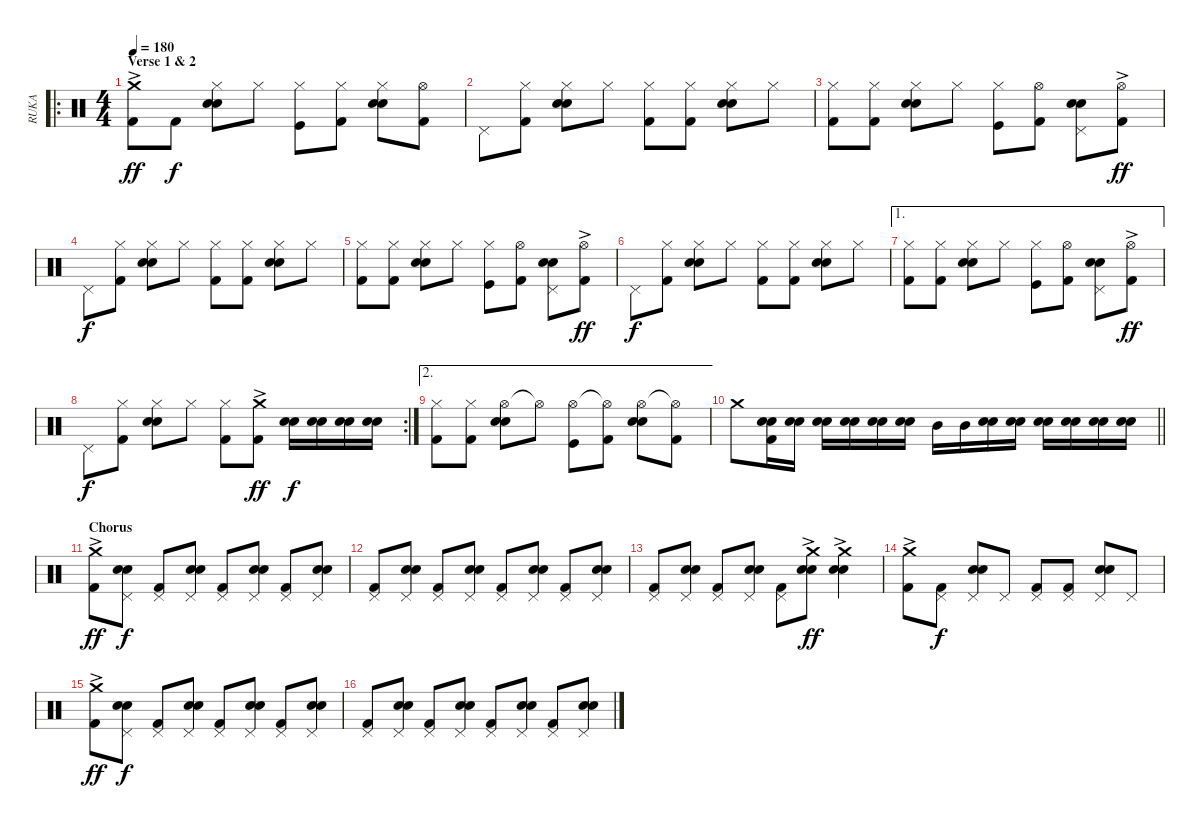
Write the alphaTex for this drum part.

\track ("RUKA" "RUKA") {instrument percussion}
\staff {score}
\articulation defaults
\ro
\ts (4 4)
\section ("" "Verse 1 & 2")
\tempo 180
\clef neutral
\ks c
("Crash medium (hit)"{ac} "Kick (hit) 2").8{dy ff} "Kick (hit) 2".8{dy f} ("Hi-Hat (closed)" "Snare (hit) 2" "Electric Snare (hit)").8 "Hi-Hat (closed)".8 ("Hi-Hat (closed)" "Kick (hit)").8 ("Hi-Hat (closed)" "Kick (hit) 2").8 ("Hi-Hat (closed)" "Snare (hit) 2" "Electric Snare (hit)").8 ("Hi-Hat (open)" "Kick (hit) 2").8 |
"Pedal Hi-Hat (hit)".8 ("Hi-Hat (closed)" "Kick (hit) 2").8 ("Hi-Hat (closed)" "Snare (hit) 2" "Electric Snare (hit)").8 "Hi-Hat (closed)".8 ("Hi-Hat (closed)" "Kick (hit) 2").8 ("Hi-Hat (closed)" "Kick (hit) 2").8 ("Hi-Hat (closed)" "Snare (hit) 2" "Electric Snare (hit)").8 "Hi-Hat (closed)".8 |
("Hi-Hat (closed)" "Kick (hit) 2").8 ("Hi-Hat (closed)" "Kick (hit) 2").8 ("Hi-Hat (closed)" "Snare (hit) 2" "Electric Snare (hit)").8 "Hi-Hat (closed)".8 ("Hi-Hat (closed)" "Kick (hit)").8 ("Hi-Hat (open)" "Kick (hit) 2").8 ("Pedal Hi-Hat (hit)" "Snare (hit) 2" "Electric Snare (hit)").8 ("Hi-Hat (open)"{ac} "Kick (hit) 2").8{dy ff} |
"Pedal Hi-Hat (hit)".8{dy f} ("Hi-Hat (closed)" "Kick (hit) 2").8 ("Hi-Hat (closed)" "Snare (hit) 2" "Electric Snare (hit)").8 "Hi-Hat (closed)".8 ("Hi-Hat (closed)" "Kick (hit) 2").8 ("Hi-Hat (closed)" "Kick (hit) 2").8 ("Hi-Hat (closed)" "Snare (hit) 2" "Electric Snare (hit)").8 "Hi-Hat (closed)".8 |
("Hi-Hat (closed)" "Kick (hit) 2").8 ("Hi-Hat (closed)" "Kick (hit) 2").8 ("Hi-Hat (closed)" "Snare (hit) 2" "Electric Snare (hit)").8 "Hi-Hat (closed)".8 ("Hi-Hat (closed)" "Kick (hit)").8 ("Hi-Hat (open)" "Kick (hit) 2").8 ("Pedal Hi-Hat (hit)" "Snare (hit) 2" "Electric Snare (hit)").8 ("Hi-Hat (open)"{ac} "Kick (hit) 2").8{dy ff} |
"Pedal Hi-Hat (hit)".8{dy f} ("Hi-Hat (closed)" "Kick (hit) 2").8 ("Hi-Hat (closed)" "Snare (hit) 2" "Electric Snare (hit)").8 "Hi-Hat (closed)".8 ("Hi-Hat (closed)" "Kick (hit) 2").8 ("Hi-Hat (closed)" "Kick (hit) 2").8 ("Hi-Hat (closed)" "Snare (hit) 2" "Electric Snare (hit)").8 "Hi-Hat (closed)".8 |
\ae 1
("Hi-Hat (closed)" "Kick (hit) 2").8 ("Hi-Hat (closed)" "Kick (hit) 2").8 ("Hi-Hat (closed)" "Snare (hit) 2" "Electric Snare (hit)").8 "Hi-Hat (closed)".8 ("Hi-Hat (closed)" "Kick (hit)").8 ("Hi-Hat (open)" "Kick (hit) 2").8 ("Pedal Hi-Hat (hit)" "Snare (hit) 2" "Electric Snare (hit)").8 ("Hi-Hat (open)"{ac} "Kick (hit) 2").8{dy ff} |
\rc 2 "Pedal Hi-Hat (hit)".8{dy f}
("Hi-Hat (closed)" "Kick (hit) 2").8 ("Hi-Hat (closed)" "Snare (hit) 2" "Electric Snare (hit)").8 "Hi-Hat (closed)".8 ("Hi-Hat (closed)" "Kick (hit) 2").8 ("Crash medium (hit)"{ac} "Kick (hit) 2").8{dy ff} ("Snare (hit) 2" "Electric Snare (hit)").16{dy f} ("Snare (hit) 2" "Electric Snare (hit)").16 ("Snare (hit) 2" "Electric Snare (hit)").16 ("Snare (hit) 2" "Electric Snare (hit)").16 |
\ae 2
("Hi-Hat (closed)" "Kick (hit) 2").8 ("Hi-Hat (closed)" "Kick (hit) 2").8 ("Hi-Hat (open)" "Snare (hit) 2" "Electric Snare (hit)").8 "Hi-Hat (open)"{t}.8 ("Hi-Hat (open)" "Kick (hit)").8 ("Hi-Hat (open)"{t} "Kick (hit) 2").8 ("Hi-Hat (open)" "Snare (hit) 2" "Electric Snare (hit)").8 ("Hi-Hat (open)"{t} "Kick (hit) 2").8 |
\barLineRight lightlight "Crash medium (hit)".8
("Snare (hit) 2" "Electric Snare (hit)" "Kick (hit) 2").16 ("Snare (hit) 2" "Electric Snare (hit)").16 ("Snare (hit) 2" "Snare (hit)").16 ("Snare (hit) 2" "Electric Snare (hit)").16 ("Snare (hit) 2" "Electric Snare (hit)").16 ("Snare (hit) 2" "Electric Snare (hit)").16 "Mid Tom (hit)".16 "Mid Tom (hit)".16 ("Snare (hit) 2" "Electric Snare (hit)").16 ("Snare (hit) 2" "Electric Snare (hit)").16 ("Snare (hit) 2" "Electric Snare (hit)").16 ("Snare (hit) 2" "Electric Snare (hit)").16 ("Snare (hit) 2" "Electric Snare (hit)").16 ("Snare (hit) 2" "Electric Snare (hit)").16 |
\section ("" "Chorus")
("Crash medium (hit)"{ac} "Kick (hit) 2").8{dy ff} ("Pedal Hi-Hat (hit)" "Snare (hit) 2" "Electric Snare (hit)").8{dy f} ("Pedal Hi-Hat (hit)" "Kick (hit) 2").8 ("Pedal Hi-Hat (hit)" "Snare (hit) 2" "Electric Snare (hit)").8 ("Pedal Hi-Hat (hit)" "Kick (hit) 2").8 ("Pedal Hi-Hat (hit)" "Snare (hit) 2" "Electric Snare (hit)").8 ("Pedal Hi-Hat (hit)" "Kick (hit) 2").8 ("Pedal Hi-Hat (hit)" "Snare (hit) 2" "Electric Snare (hit)").8 |
("Pedal Hi-Hat (hit)" "Kick (hit) 2").8 ("Pedal Hi-Hat (hit)" "Snare (hit) 2" "Electric Snare (hit)").8 ("Pedal Hi-Hat (hit)" "Kick (hit) 2").8 ("Pedal Hi-Hat (hit)" "Snare (hit) 2" "Electric Snare (hit)").8 ("Pedal Hi-Hat (hit)" "Kick (hit) 2").8 ("Pedal Hi-Hat (hit)" "Snare (hit) 2" "Electric Snare (hit)").8 ("Pedal Hi-Hat (hit)" "Kick (hit) 2").8 ("Pedal Hi-Hat (hit)" "Snare (hit) 2" "Electric Snare (hit)").8 |
("Pedal Hi-Hat (hit)" "Kick (hit) 2").8 ("Pedal Hi-Hat (hit)" "Snare (hit) 2" "Electric Snare (hit)").8 ("Pedal Hi-Hat (hit)" "Kick (hit) 2").8 ("Pedal Hi-Hat (hit)" "Snare (hit) 2" "Electric Snare (hit)").8 ("Pedal Hi-Hat (hit)" "Kick (hit) 2").8 ("Crash medium (hit)"{ac} "Snare (hit) 2" "Electric Snare (hit)").8{dy ff} ("Crash medium (hit)"{ac} "Snare (hit) 2" "Electric Snare (hit)").4 |
("Crash medium (hit)"{ac} "Kick (hit) 2").8 ("Pedal Hi-Hat (hit)" "Kick (hit) 2").8{dy f} ("Pedal Hi-Hat (hit)" "Snare (hit) 2" "Electric Snare (hit)").8 "Pedal Hi-Hat (hit)".8 ("Pedal Hi-Hat (hit)" "Kick (hit) 2").8 ("Pedal Hi-Hat (hit)" "Kick (hit) 2").8 ("Pedal Hi-Hat (hit)" "Snare (hit) 2" "Electric Snare (hit)").8 "Pedal Hi-Hat (hit)".8 |
("Crash medium (hit)"{ac} "Kick (hit) 2").8{dy ff} ("Pedal Hi-Hat (hit)" "Snare (hit) 2" "Electric Snare (hit)").8{dy f} ("Pedal Hi-Hat (hit)" "Kick (hit) 2").8 ("Pedal Hi-Hat (hit)" "Snare (hit) 2" "Electric Snare (hit)").8 ("Pedal Hi-Hat (hit)" "Kick (hit) 2").8 ("Pedal Hi-Hat (hit)" "Snare (hit) 2" "Electric Snare (hit)").8 ("Pedal Hi-Hat (hit)" "Kick (hit) 2").8 ("Pedal Hi-Hat (hit)" "Snare (hit) 2" "Electric Snare (hit)").8 |
("Pedal Hi-Hat (hit)" "Kick (hit) 2").8 ("Pedal Hi-Hat (hit)" "Snare (hit) 2" "Electric Snare (hit)").8 ("Pedal Hi-Hat (hit)" "Kick (hit) 2").8 ("Pedal Hi-Hat (hit)" "Snare (hit) 2" "Electric Snare (hit)").8 ("Pedal Hi-Hat (hit)" "Kick (hit) 2").8 ("Pedal Hi-Hat (hit)" "Snare (hit) 2" "Electric Snare (hit)").8 ("Pedal Hi-Hat (hit)" "Kick (hit) 2").8 ("Pedal Hi-Hat (hit)" "Snare (hit) 2" "Electric Snare (hit)").8
